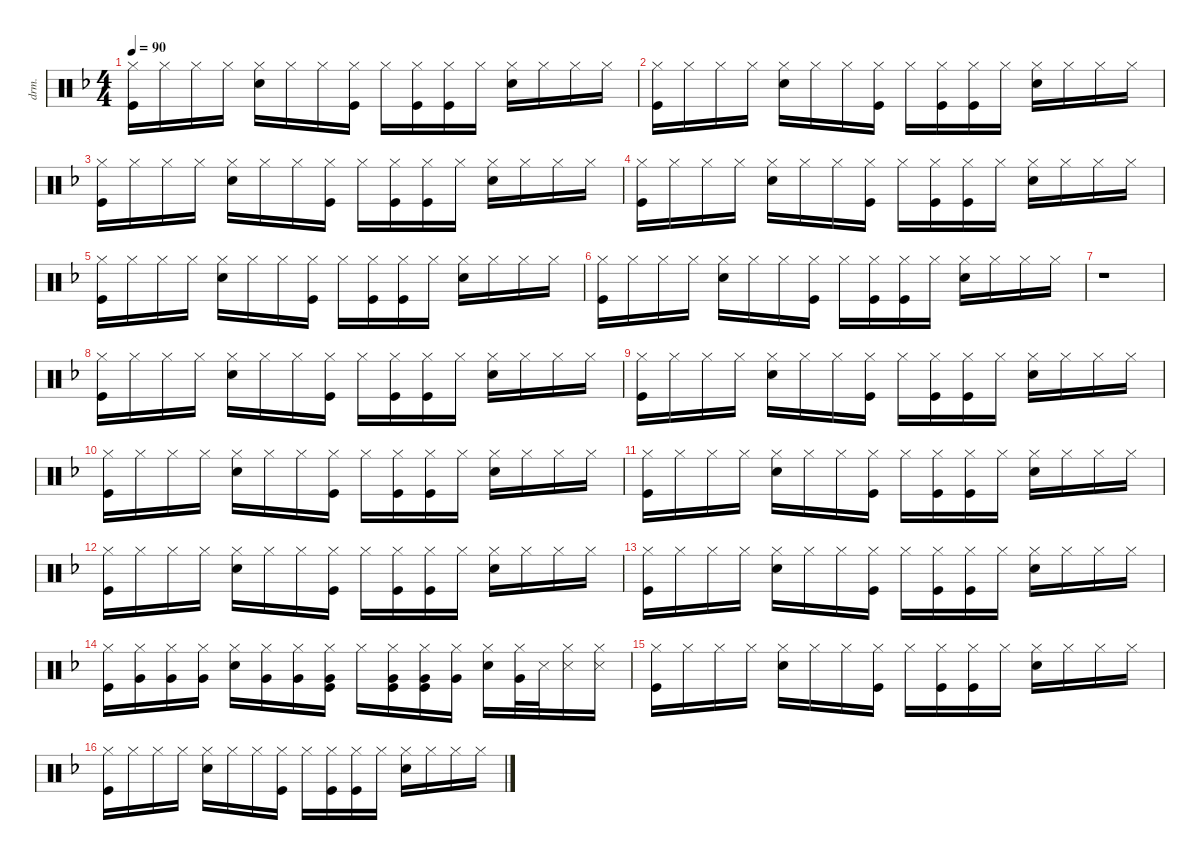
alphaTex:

\defaultSystemsLayout 4
\hideDynamics
\bracketExtendMode nobrackets
\track ("Drumkit" "drm.") {instrument percussion}
\staff {score}
\articulation defaults
\ts (4 4)
\tempo 90
\clef neutral
\ks f
("Hi-Hat (closed)"{acc forcenatural} "Kick (hit)"{acc forcenatural}).16{dy mf} "Hi-Hat (closed)"{acc forcenatural}.16 "Hi-Hat (closed)"{acc forcenatural}.16 "Hi-Hat (closed)"{acc forcenatural}.16 ("Hi-Hat (closed)"{acc forcenatural} "Snare (hit) 2"{acc forcenatural}).16 "Hi-Hat (closed)"{acc forcenatural}.16 "Hi-Hat (closed)"{acc forcenatural}.16 ("Hi-Hat (closed)"{acc forcenatural} "Kick (hit)"{acc forcenatural}).16 "Hi-Hat (closed)"{acc forcenatural}.16 ("Hi-Hat (closed)"{acc forcenatural} "Kick (hit)"{acc forcenatural}).16 ("Hi-Hat (closed)"{acc forcenatural} "Kick (hit)"{acc forcenatural}).16 "Hi-Hat (closed)"{acc forcenatural}.16 ("Hi-Hat (closed)"{acc forcenatural} "Snare (hit) 2"{acc forcenatural}).16 "Hi-Hat (closed)"{acc forcenatural}.16 "Hi-Hat (closed)"{acc forcenatural}.16 "Hi-Hat (closed)"{acc forcenatural}.16 |
("Hi-Hat (closed)"{acc forcenatural} "Kick (hit)"{acc forcenatural}).16 "Hi-Hat (closed)"{acc forcenatural}.16 "Hi-Hat (closed)"{acc forcenatural}.16 "Hi-Hat (closed)"{acc forcenatural}.16 ("Hi-Hat (closed)"{acc forcenatural} "Snare (hit) 2"{acc forcenatural}).16 "Hi-Hat (closed)"{acc forcenatural}.16 "Hi-Hat (closed)"{acc forcenatural}.16 ("Hi-Hat (closed)"{acc forcenatural} "Kick (hit)"{acc forcenatural}).16 "Hi-Hat (closed)"{acc forcenatural}.16 ("Hi-Hat (closed)"{acc forcenatural} "Kick (hit)"{acc forcenatural}).16 ("Hi-Hat (closed)"{acc forcenatural} "Kick (hit)"{acc forcenatural}).16 "Hi-Hat (closed)"{acc forcenatural}.16 ("Hi-Hat (closed)"{acc forcenatural} "Snare (hit) 2"{acc forcenatural}).16 "Hi-Hat (closed)"{acc forcenatural}.16 "Hi-Hat (closed)"{acc forcenatural}.16 "Hi-Hat (closed)"{acc forcenatural}.16 |
("Hi-Hat (closed)"{acc forcenatural} "Kick (hit)"{acc forcenatural}).16 "Hi-Hat (closed)"{acc forcenatural}.16 "Hi-Hat (closed)"{acc forcenatural}.16 "Hi-Hat (closed)"{acc forcenatural}.16 ("Hi-Hat (closed)"{acc forcenatural} "Snare (hit) 2"{acc forcenatural}).16 "Hi-Hat (closed)"{acc forcenatural}.16 "Hi-Hat (closed)"{acc forcenatural}.16 ("Hi-Hat (closed)"{acc forcenatural} "Kick (hit)"{acc forcenatural}).16 "Hi-Hat (closed)"{acc forcenatural}.16 ("Hi-Hat (closed)"{acc forcenatural} "Kick (hit)"{acc forcenatural}).16 ("Hi-Hat (closed)"{acc forcenatural} "Kick (hit)"{acc forcenatural}).16 "Hi-Hat (closed)"{acc forcenatural}.16 ("Hi-Hat (closed)"{acc forcenatural} "Snare (hit) 2"{acc forcenatural}).16 "Hi-Hat (closed)"{acc forcenatural}.16 "Hi-Hat (closed)"{acc forcenatural}.16 "Hi-Hat (closed)"{acc forcenatural}.16 |
("Hi-Hat (closed)"{acc forcenatural} "Kick (hit)"{acc forcenatural}).16 "Hi-Hat (closed)"{acc forcenatural}.16 "Hi-Hat (closed)"{acc forcenatural}.16 "Hi-Hat (closed)"{acc forcenatural}.16 ("Hi-Hat (closed)"{acc forcenatural} "Snare (hit) 2"{acc forcenatural}).16 "Hi-Hat (closed)"{acc forcenatural}.16 "Hi-Hat (closed)"{acc forcenatural}.16 ("Hi-Hat (closed)"{acc forcenatural} "Kick (hit)"{acc forcenatural}).16 "Hi-Hat (closed)"{acc forcenatural}.16 ("Hi-Hat (closed)"{acc forcenatural} "Kick (hit)"{acc forcenatural}).16 ("Hi-Hat (closed)"{acc forcenatural} "Kick (hit)"{acc forcenatural}).16 "Hi-Hat (closed)"{acc forcenatural}.16 ("Hi-Hat (closed)"{acc forcenatural} "Snare (hit) 2"{acc forcenatural}).16 "Hi-Hat (closed)"{acc forcenatural}.16 "Hi-Hat (closed)"{acc forcenatural}.16 "Hi-Hat (closed)"{acc forcenatural}.16 |
("Hi-Hat (closed)"{acc forcenatural} "Kick (hit)"{acc forcenatural}).16 "Hi-Hat (closed)"{acc forcenatural}.16 "Hi-Hat (closed)"{acc forcenatural}.16 "Hi-Hat (closed)"{acc forcenatural}.16 ("Hi-Hat (closed)"{acc forcenatural} "Snare (hit) 2"{acc forcenatural}).16 "Hi-Hat (closed)"{acc forcenatural}.16 "Hi-Hat (closed)"{acc forcenatural}.16 ("Hi-Hat (closed)"{acc forcenatural} "Kick (hit)"{acc forcenatural}).16 "Hi-Hat (closed)"{acc forcenatural}.16 ("Hi-Hat (closed)"{acc forcenatural} "Kick (hit)"{acc forcenatural}).16 ("Hi-Hat (closed)"{acc forcenatural} "Kick (hit)"{acc forcenatural}).16 "Hi-Hat (closed)"{acc forcenatural}.16 ("Hi-Hat (closed)"{acc forcenatural} "Snare (hit) 2"{acc forcenatural}).16 "Hi-Hat (closed)"{acc forcenatural}.16 "Hi-Hat (closed)"{acc forcenatural}.16 "Hi-Hat (closed)"{acc forcenatural}.16 |
("Hi-Hat (closed)"{acc forcenatural} "Kick (hit)"{acc forcenatural}).16 "Hi-Hat (closed)"{acc forcenatural}.16 "Hi-Hat (closed)"{acc forcenatural}.16 "Hi-Hat (closed)"{acc forcenatural}.16 ("Hi-Hat (closed)"{acc forcenatural} "Snare (hit) 2"{acc forcenatural}).16 "Hi-Hat (closed)"{acc forcenatural}.16 "Hi-Hat (closed)"{acc forcenatural}.16 ("Hi-Hat (closed)"{acc forcenatural} "Kick (hit)"{acc forcenatural}).16 "Hi-Hat (closed)"{acc forcenatural}.16 ("Hi-Hat (closed)"{acc forcenatural} "Kick (hit)"{acc forcenatural}).16 ("Hi-Hat (closed)"{acc forcenatural} "Kick (hit)"{acc forcenatural}).16 "Hi-Hat (closed)"{acc forcenatural}.16 ("Hi-Hat (closed)"{acc forcenatural} "Snare (hit) 2"{acc forcenatural}).16 "Hi-Hat (closed)"{acc forcenatural}.16 "Hi-Hat (closed)"{acc forcenatural}.16 "Hi-Hat (closed)"{acc forcenatural}.16 |
r.1 |
("Hi-Hat (closed)"{acc forcenatural} "Kick (hit)"{acc forcenatural}).16 "Hi-Hat (closed)"{acc forcenatural}.16 "Hi-Hat (closed)"{acc forcenatural}.16 "Hi-Hat (closed)"{acc forcenatural}.16 ("Hi-Hat (closed)"{acc forcenatural} "Snare (hit) 2"{acc forcenatural}).16 "Hi-Hat (closed)"{acc forcenatural}.16 "Hi-Hat (closed)"{acc forcenatural}.16 ("Hi-Hat (closed)"{acc forcenatural} "Kick (hit)"{acc forcenatural}).16 "Hi-Hat (closed)"{acc forcenatural}.16 ("Hi-Hat (closed)"{acc forcenatural} "Kick (hit)"{acc forcenatural}).16 ("Hi-Hat (closed)"{acc forcenatural} "Kick (hit)"{acc forcenatural}).16 "Hi-Hat (closed)"{acc forcenatural}.16 ("Hi-Hat (closed)"{acc forcenatural} "Snare (hit) 2"{acc forcenatural}).16 "Hi-Hat (closed)"{acc forcenatural}.16 "Hi-Hat (closed)"{acc forcenatural}.16 "Hi-Hat (closed)"{acc forcenatural}.16 |
("Hi-Hat (closed)"{acc forcenatural} "Kick (hit)"{acc forcenatural}).16 "Hi-Hat (closed)"{acc forcenatural}.16 "Hi-Hat (closed)"{acc forcenatural}.16 "Hi-Hat (closed)"{acc forcenatural}.16 ("Hi-Hat (closed)"{acc forcenatural} "Snare (hit) 2"{acc forcenatural}).16 "Hi-Hat (closed)"{acc forcenatural}.16 "Hi-Hat (closed)"{acc forcenatural}.16 ("Hi-Hat (closed)"{acc forcenatural} "Kick (hit)"{acc forcenatural}).16 "Hi-Hat (closed)"{acc forcenatural}.16 ("Hi-Hat (closed)"{acc forcenatural} "Kick (hit)"{acc forcenatural}).16 ("Hi-Hat (closed)"{acc forcenatural} "Kick (hit)"{acc forcenatural}).16 "Hi-Hat (closed)"{acc forcenatural}.16 ("Hi-Hat (closed)"{acc forcenatural} "Snare (hit) 2"{acc forcenatural}).16 "Hi-Hat (closed)"{acc forcenatural}.16 "Hi-Hat (closed)"{acc forcenatural}.16 "Hi-Hat (closed)"{acc forcenatural}.16 |
("Hi-Hat (closed)"{acc forcenatural} "Kick (hit)"{acc forcenatural}).16 "Hi-Hat (closed)"{acc forcenatural}.16 "Hi-Hat (closed)"{acc forcenatural}.16 "Hi-Hat (closed)"{acc forcenatural}.16 ("Hi-Hat (closed)"{acc forcenatural} "Snare (hit) 2"{acc forcenatural}).16 "Hi-Hat (closed)"{acc forcenatural}.16 "Hi-Hat (closed)"{acc forcenatural}.16 ("Hi-Hat (closed)"{acc forcenatural} "Kick (hit)"{acc forcenatural}).16 "Hi-Hat (closed)"{acc forcenatural}.16 ("Hi-Hat (closed)"{acc forcenatural} "Kick (hit)"{acc forcenatural}).16 ("Hi-Hat (closed)"{acc forcenatural} "Kick (hit)"{acc forcenatural}).16 "Hi-Hat (closed)"{acc forcenatural}.16 ("Hi-Hat (closed)"{acc forcenatural} "Snare (hit) 2"{acc forcenatural}).16 "Hi-Hat (closed)"{acc forcenatural}.16 "Hi-Hat (closed)"{acc forcenatural}.16 "Hi-Hat (closed)"{acc forcenatural}.16 |
("Hi-Hat (closed)"{acc forcenatural} "Kick (hit)"{acc forcenatural}).16 "Hi-Hat (closed)"{acc forcenatural}.16 "Hi-Hat (closed)"{acc forcenatural}.16 "Hi-Hat (closed)"{acc forcenatural}.16 ("Hi-Hat (closed)"{acc forcenatural} "Snare (hit) 2"{acc forcenatural}).16 "Hi-Hat (closed)"{acc forcenatural}.16 "Hi-Hat (closed)"{acc forcenatural}.16 ("Hi-Hat (closed)"{acc forcenatural} "Kick (hit)"{acc forcenatural}).16 "Hi-Hat (closed)"{acc forcenatural}.16 ("Hi-Hat (closed)"{acc forcenatural} "Kick (hit)"{acc forcenatural}).16 ("Hi-Hat (closed)"{acc forcenatural} "Kick (hit)"{acc forcenatural}).16 "Hi-Hat (closed)"{acc forcenatural}.16 ("Hi-Hat (closed)"{acc forcenatural} "Snare (hit) 2"{acc forcenatural}).16 "Hi-Hat (closed)"{acc forcenatural}.16 "Hi-Hat (closed)"{acc forcenatural}.16 "Hi-Hat (closed)"{acc forcenatural}.16 |
("Hi-Hat (closed)"{acc forcenatural} "Kick (hit)"{acc forcenatural}).16 "Hi-Hat (closed)"{acc forcenatural}.16 "Hi-Hat (closed)"{acc forcenatural}.16 "Hi-Hat (closed)"{acc forcenatural}.16 ("Hi-Hat (closed)"{acc forcenatural} "Snare (hit) 2"{acc forcenatural}).16 "Hi-Hat (closed)"{acc forcenatural}.16 "Hi-Hat (closed)"{acc forcenatural}.16 ("Hi-Hat (closed)"{acc forcenatural} "Kick (hit)"{acc forcenatural}).16 "Hi-Hat (closed)"{acc forcenatural}.16 ("Hi-Hat (closed)"{acc forcenatural} "Kick (hit)"{acc forcenatural}).16 ("Hi-Hat (closed)"{acc forcenatural} "Kick (hit)"{acc forcenatural}).16 "Hi-Hat (closed)"{acc forcenatural}.16 ("Hi-Hat (closed)"{acc forcenatural} "Snare (hit) 2"{acc forcenatural}).16 "Hi-Hat (closed)"{acc forcenatural}.16 "Hi-Hat (closed)"{acc forcenatural}.16 "Hi-Hat (closed)"{acc forcenatural}.16 |
("Hi-Hat (closed)"{acc forcenatural} "Kick (hit)"{acc forcenatural}).16 "Hi-Hat (closed)"{acc forcenatural}.16 "Hi-Hat (closed)"{acc forcenatural}.16 "Hi-Hat (closed)"{acc forcenatural}.16 ("Hi-Hat (closed)"{acc forcenatural} "Snare (hit) 2"{acc forcenatural}).16 "Hi-Hat (closed)"{acc forcenatural}.16 "Hi-Hat (closed)"{acc forcenatural}.16 ("Hi-Hat (closed)"{acc forcenatural} "Kick (hit)"{acc forcenatural}).16 "Hi-Hat (closed)"{acc forcenatural}.16 ("Hi-Hat (closed)"{acc forcenatural} "Kick (hit)"{acc forcenatural}).16 ("Hi-Hat (closed)"{acc forcenatural} "Kick (hit)"{acc forcenatural}).16 "Hi-Hat (closed)"{acc forcenatural}.16 ("Hi-Hat (closed)"{acc forcenatural} "Snare (hit) 2"{acc forcenatural}).16 "Hi-Hat (closed)"{acc forcenatural}.16 "Hi-Hat (closed)"{acc forcenatural}.16 "Hi-Hat (closed)"{acc forcenatural}.16 |
("Hi-Hat (closed)"{acc forcenatural} "Kick (hit)"{acc forcenatural}).16 ("Hi-Hat (closed)"{acc forcenatural} "Very Low Tom (hit)"{acc forcenatural}).16 ("Hi-Hat (closed)"{acc forcenatural} "Very Low Tom (hit)"{acc forcenatural}).16 ("Hi-Hat (closed)"{acc forcenatural} "Very Low Tom (hit)"{acc forcenatural}).16 ("Hi-Hat (closed)"{acc forcenatural} "Snare (hit) 2"{acc forcenatural}).16 ("Hi-Hat (closed)"{acc forcenatural} "Very Low Tom (hit)"{acc forcenatural}).16 ("Hi-Hat (closed)"{acc forcenatural} "Very Low Tom (hit)"{acc forcenatural}).16 ("Hi-Hat (closed)"{acc forcenatural} "Kick (hit)"{acc forcenatural} "Very Low Tom (hit)"{acc forcenatural}).16 "Hi-Hat (closed)"{acc forcenatural}.16 ("Hi-Hat (closed)"{acc forcenatural} "Kick (hit)"{acc forcenatural} "Very Low Tom (hit)"{acc forcenatural}).16 ("Hi-Hat (closed)"{acc forcenatural} "Kick (hit)"{acc forcenatural} "Very Low Tom (hit)"{acc forcenatural}).16 ("Hi-Hat (closed)"{acc forcenatural} "Very Low Tom (hit)"{acc forcenatural}).16 ("Hi-Hat (closed)"{acc forcenatural} "Snare (hit) 2"{acc forcenatural}).16 ("Hi-Hat (closed)"{acc forcenatural} "Very Low Tom (hit)"{acc forcenatural}).32 "Snare (side stick) 3"{acc forcenatural}.32 ("Hi-Hat (closed)"{acc forcenatural} "Snare (side stick) 3"{acc forcenatural}).16 ("Snare (side stick) 3"{acc forcenatural} "Hi-Hat (closed)"{acc forcenatural}).16 |
("Hi-Hat (closed)"{acc forcenatural} "Kick (hit)"{acc forcenatural}).16 "Hi-Hat (closed)"{acc forcenatural}.16 "Hi-Hat (closed)"{acc forcenatural}.16 "Hi-Hat (closed)"{acc forcenatural}.16 ("Hi-Hat (closed)"{acc forcenatural} "Snare (hit) 2"{acc forcenatural}).16 "Hi-Hat (closed)"{acc forcenatural}.16 "Hi-Hat (closed)"{acc forcenatural}.16 ("Hi-Hat (closed)"{acc forcenatural} "Kick (hit)"{acc forcenatural}).16 "Hi-Hat (closed)"{acc forcenatural}.16 ("Hi-Hat (closed)"{acc forcenatural} "Kick (hit)"{acc forcenatural}).16 ("Hi-Hat (closed)"{acc forcenatural} "Kick (hit)"{acc forcenatural}).16 "Hi-Hat (closed)"{acc forcenatural}.16 ("Hi-Hat (closed)"{acc forcenatural} "Snare (hit) 2"{acc forcenatural}).16 "Hi-Hat (closed)"{acc forcenatural}.16 "Hi-Hat (closed)"{acc forcenatural}.16 "Hi-Hat (closed)"{acc forcenatural}.16 |
("Hi-Hat (closed)"{acc forcenatural} "Kick (hit)"{acc forcenatural}).16 "Hi-Hat (closed)"{acc forcenatural}.16 "Hi-Hat (closed)"{acc forcenatural}.16 "Hi-Hat (closed)"{acc forcenatural}.16 ("Hi-Hat (closed)"{acc forcenatural} "Snare (hit) 2"{acc forcenatural}).16 "Hi-Hat (closed)"{acc forcenatural}.16 "Hi-Hat (closed)"{acc forcenatural}.16 ("Hi-Hat (closed)"{acc forcenatural} "Kick (hit)"{acc forcenatural}).16 "Hi-Hat (closed)"{acc forcenatural}.16 ("Hi-Hat (closed)"{acc forcenatural} "Kick (hit)"{acc forcenatural}).16 ("Hi-Hat (closed)"{acc forcenatural} "Kick (hit)"{acc forcenatural}).16 "Hi-Hat (closed)"{acc forcenatural}.16 ("Hi-Hat (closed)"{acc forcenatural} "Snare (hit) 2"{acc forcenatural}).16 "Hi-Hat (closed)"{acc forcenatural}.16 "Hi-Hat (closed)"{acc forcenatural}.16 "Hi-Hat (closed)"{acc forcenatural}.16
